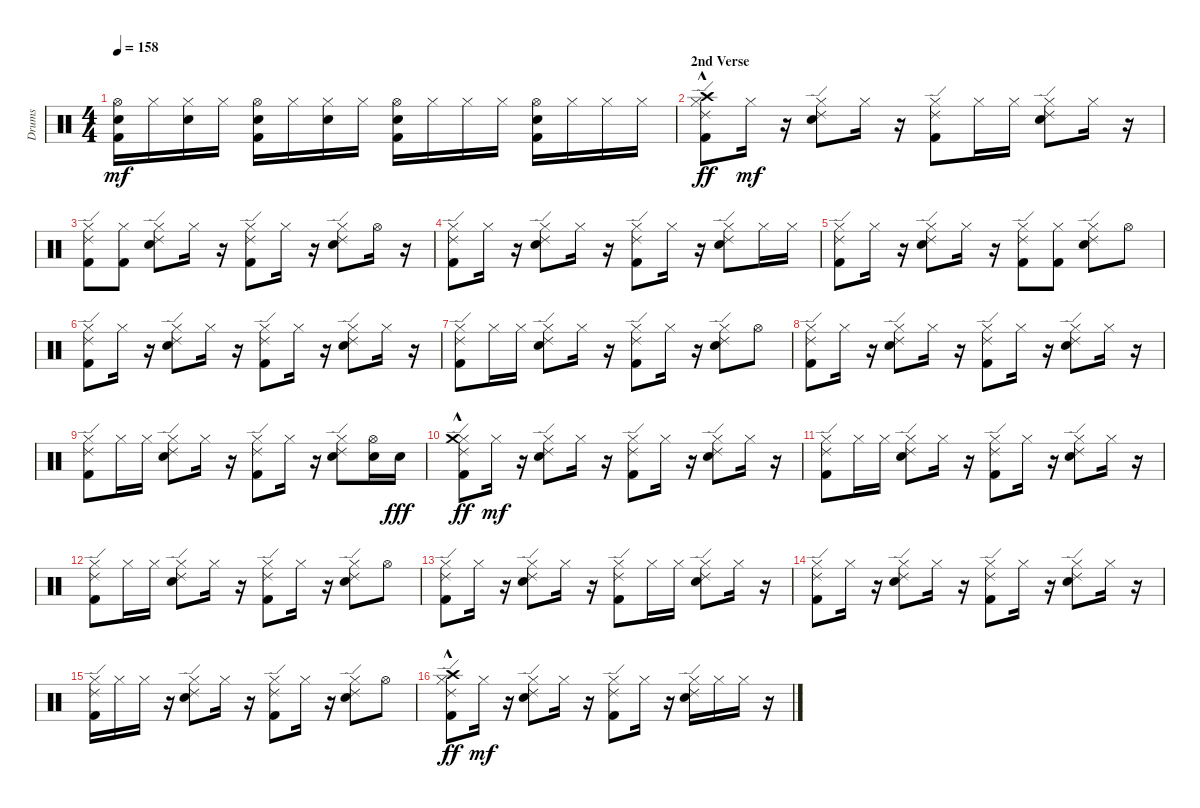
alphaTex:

\track ("Drums" "Drums") {instrument percussion}
\staff {score}
\articulation defaults
\ts (4 4)
\tempo 158
\clef neutral
\ks c
("Kick (hit) 2" "Snare (hit) 2" "Hi-Hat (open)").16{dy mf} "Hi-Hat (closed)".16 ("Snare (hit) 2" "Hi-Hat (closed)").16 "Hi-Hat (closed)".16 ("Kick (hit) 2" "Snare (hit) 2" "Hi-Hat (open)").16 "Hi-Hat (closed)".16 ("Snare (hit) 2" "Hi-Hat (closed)").16 "Hi-Hat (closed)".16 ("Kick (hit) 2" "Snare (hit) 2" "Hi-Hat (open)").16 "Hi-Hat (closed)".16 "Hi-Hat (closed)".16 "Hi-Hat (closed)".16 ("Kick (hit) 2" "Snare (hit) 2" "Hi-Hat (open)").16 "Hi-Hat (closed)".16 "Hi-Hat (closed)".16 "Hi-Hat (closed)".16 |
\section ("" "2nd Verse")
("Kick (hit) 2" "Hi-Hat (closed)" "Ride (edge) 2" "Crash high (hit)"{hac}).8{dy ff} "Hi-Hat (closed)".16{dy mf} r.16 ("Snare (hit) 2" "Hi-Hat (closed)" "Ride (edge) 2").8 "Hi-Hat (closed)".16 r.16 ("Kick (hit) 2" "Hi-Hat (closed)" "Ride (edge) 2").8 "Hi-Hat (closed)".16 "Hi-Hat (closed)".16 ("Snare (hit) 2" "Hi-Hat (closed)" "Ride (edge) 2").8 "Hi-Hat (closed)".16 r.16 |
("Kick (hit) 2" "Hi-Hat (closed)" "Ride (edge) 2").8 ("Kick (hit) 2" "Hi-Hat (closed)").8 ("Snare (hit) 2" "Hi-Hat (closed)" "Ride (edge) 2").8 "Hi-Hat (closed)".16 r.16 ("Kick (hit) 2" "Hi-Hat (closed)" "Ride (edge) 2").8 "Hi-Hat (closed)".16 r.16 ("Snare (hit) 2" "Hi-Hat (closed)" "Ride (edge) 2").8 "Hi-Hat (open)".16 r.16 |
("Kick (hit) 2" "Hi-Hat (closed)" "Ride (edge) 2").8 "Hi-Hat (closed)".16 r.16 ("Snare (hit) 2" "Hi-Hat (closed)" "Ride (edge) 2").8 "Hi-Hat (closed)".16 r.16 ("Kick (hit) 2" "Hi-Hat (closed)" "Ride (edge) 2").8 "Hi-Hat (closed)".16 r.16 ("Snare (hit) 2" "Hi-Hat (closed)" "Ride (edge) 2").8 "Hi-Hat (closed)".16 "Hi-Hat (closed)".16 |
("Kick (hit) 2" "Hi-Hat (closed)" "Ride (edge) 2").8 "Hi-Hat (closed)".16 r.16 ("Snare (hit) 2" "Hi-Hat (closed)" "Ride (edge) 2").8 "Hi-Hat (closed)".16 r.16 ("Kick (hit) 2" "Hi-Hat (closed)" "Ride (edge) 2").8 ("Kick (hit) 2" "Hi-Hat (closed)").8 ("Snare (hit) 2" "Hi-Hat (closed)" "Ride (edge) 2").8 "Hi-Hat (open)".8 |
("Kick (hit) 2" "Hi-Hat (closed)" "Ride (edge) 2").8 "Hi-Hat (closed)".16 r.16 ("Snare (hit) 2" "Hi-Hat (closed)" "Ride (edge) 2").8 "Hi-Hat (closed)".16 r.16 ("Kick (hit) 2" "Hi-Hat (closed)" "Ride (edge) 2").8 "Hi-Hat (closed)".16 r.16 ("Snare (hit) 2" "Hi-Hat (closed)" "Ride (edge) 2").8 "Hi-Hat (closed)".16 r.16 |
("Kick (hit) 2" "Hi-Hat (closed)" "Ride (edge) 2").8 "Hi-Hat (closed)".16 "Hi-Hat (closed)".16 ("Snare (hit) 2" "Hi-Hat (closed)" "Ride (edge) 2").8 "Hi-Hat (closed)".16 r.16 ("Kick (hit) 2" "Hi-Hat (closed)" "Ride (edge) 2").8 "Hi-Hat (closed)".16 r.16 ("Snare (hit) 2" "Hi-Hat (closed)" "Ride (edge) 2").8 "Hi-Hat (open)".8 |
("Kick (hit) 2" "Hi-Hat (closed)" "Ride (edge) 2").8 "Hi-Hat (closed)".16 r.16 ("Snare (hit) 2" "Hi-Hat (closed)" "Ride (edge) 2").8 "Hi-Hat (closed)".16 r.16 ("Kick (hit) 2" "Hi-Hat (closed)" "Ride (edge) 2").8 "Hi-Hat (closed)".16 r.16 ("Snare (hit) 2" "Hi-Hat (closed)" "Ride (edge) 2").8 "Hi-Hat (closed)".16 r.16 |
("Kick (hit) 2" "Hi-Hat (closed)" "Ride (edge) 2").8 "Hi-Hat (closed)".16 "Hi-Hat (closed)".16 ("Snare (hit) 2" "Hi-Hat (closed)" "Ride (edge) 2").8 "Hi-Hat (closed)".16 r.16 ("Kick (hit) 2" "Hi-Hat (closed)" "Ride (edge) 2").8 "Hi-Hat (closed)".16 r.16 ("Snare (hit) 2" "Hi-Hat (closed)" "Ride (edge) 2").8 ("Snare (hit) 2" "Hi-Hat (open)").16 "Snare (hit) 2".16{dy fff} |
("Kick (hit) 2" "Hi-Hat (closed)" "Ride (edge) 2" "Crash medium (hit)"{hac}).8{dy ff} "Hi-Hat (closed)".16{dy mf} r.16 ("Snare (hit) 2" "Hi-Hat (closed)" "Ride (edge) 2").8 "Hi-Hat (closed)".16 r.16 ("Kick (hit) 2" "Hi-Hat (closed)" "Ride (edge) 2").8 "Hi-Hat (closed)".16 r.16 ("Snare (hit) 2" "Hi-Hat (closed)" "Ride (edge) 2").8 "Hi-Hat (closed)".16 r.16 |
("Kick (hit) 2" "Hi-Hat (closed)" "Ride (edge) 2").8 "Hi-Hat (closed)".16 "Hi-Hat (closed)".16 ("Snare (hit) 2" "Hi-Hat (closed)" "Ride (edge) 2").8 "Hi-Hat (closed)".16 r.16 ("Kick (hit) 2" "Hi-Hat (closed)" "Ride (edge) 2").8 "Hi-Hat (closed)".16 r.16 ("Snare (hit) 2" "Hi-Hat (closed)" "Ride (edge) 2").8 "Hi-Hat (closed)".16 r.16 |
("Kick (hit) 2" "Hi-Hat (closed)" "Ride (edge) 2").8 "Hi-Hat (closed)".16 "Hi-Hat (closed)".16 ("Snare (hit) 2" "Hi-Hat (closed)" "Ride (edge) 2").8 "Hi-Hat (closed)".16 r.16 ("Kick (hit) 2" "Hi-Hat (closed)" "Ride (edge) 2").8 "Hi-Hat (closed)".16 r.16 ("Snare (hit) 2" "Hi-Hat (closed)" "Ride (edge) 2").8 "Hi-Hat (open)".8 |
("Kick (hit) 2" "Hi-Hat (closed)" "Ride (edge) 2").8 "Hi-Hat (closed)".16 r.16 ("Snare (hit) 2" "Hi-Hat (closed)" "Ride (edge) 2").8 "Hi-Hat (closed)".16 r.16 ("Kick (hit) 2" "Hi-Hat (closed)" "Ride (edge) 2").8 "Hi-Hat (closed)".16 "Hi-Hat (closed)".16 ("Snare (hit) 2" "Hi-Hat (closed)" "Ride (edge) 2").8 "Hi-Hat (closed)".16 r.16 |
("Kick (hit) 2" "Hi-Hat (closed)" "Ride (edge) 2").8 "Hi-Hat (closed)".16 r.16 ("Snare (hit) 2" "Hi-Hat (closed)" "Ride (edge) 2").8 "Hi-Hat (closed)".16 r.16 ("Kick (hit) 2" "Hi-Hat (closed)" "Ride (edge) 2").8 "Hi-Hat (closed)".16 r.16 ("Snare (hit) 2" "Hi-Hat (closed)" "Ride (edge) 2").8 "Hi-Hat (closed)".16 r.16 |
("Kick (hit) 2" "Hi-Hat (closed)" "Ride (edge) 2").16 "Hi-Hat (closed)".16 "Hi-Hat (closed)".16 r.16 ("Snare (hit) 2" "Hi-Hat (closed)" "Ride (edge) 2").8 "Hi-Hat (closed)".16 r.16 ("Kick (hit) 2" "Hi-Hat (closed)" "Ride (edge) 2").8 "Hi-Hat (closed)".16 r.16 ("Snare (hit) 2" "Hi-Hat (closed)" "Ride (edge) 2").8 "Hi-Hat (open)".8 |
("Kick (hit) 2" "Hi-Hat (closed)" "Ride (edge) 2" "Crash high (hit)"{hac}).8{dy ff} "Hi-Hat (closed)".16{dy mf} r.16 ("Snare (hit) 2" "Hi-Hat (closed)" "Ride (edge) 2").8 "Hi-Hat (closed)".16 r.16 ("Kick (hit) 2" "Hi-Hat (closed)" "Ride (edge) 2").8 "Hi-Hat (closed)".16 r.16 ("Snare (hit) 2" "Hi-Hat (closed)" "Ride (edge) 2").16 "Hi-Hat (closed)".16 "Hi-Hat (closed)".16 r.16
